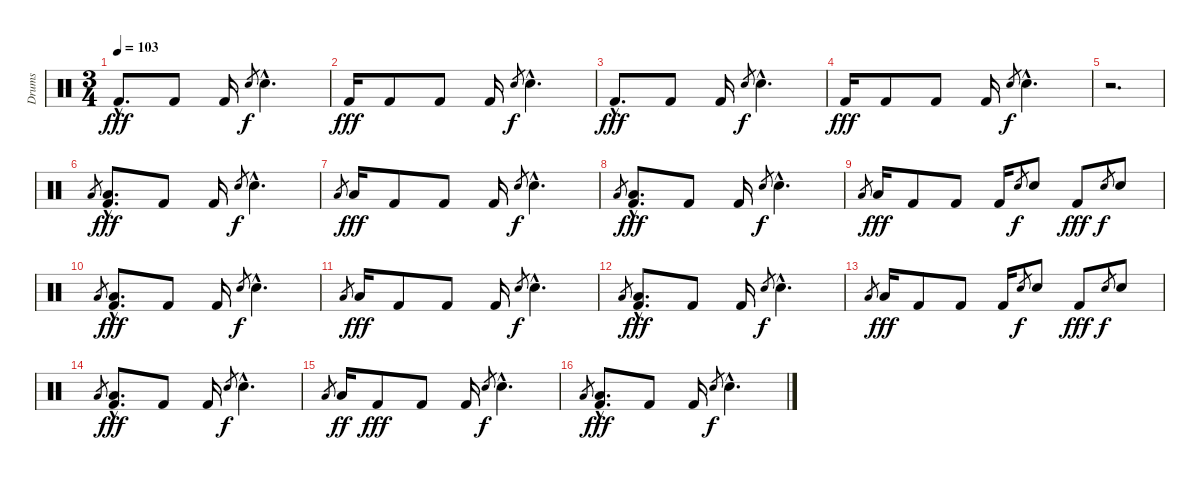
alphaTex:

\track ("Drums" "Drums") {instrument percussion}
\staff {score}
\articulation defaults
\ts (3 4)
\tempo 103
\clef neutral
\ks c "Kick (hit) 2"{hac}.8{d dy fff} "Kick (hit) 2".8 "Kick (hit) 2".16 "Snare (hit) 2".8{gr dy f} "Snare (hit) 2"{hac}.4{d}
|
"Kick (hit) 2".16{dy fff} "Kick (hit) 2".8 "Kick (hit) 2".8 "Kick (hit) 2".16 "Snare (hit) 2".8{gr dy f} "Snare (hit) 2"{hac}.4{d} |
"Kick (hit) 2"{hac}.8{d dy fff} "Kick (hit) 2".8 "Kick (hit) 2".16 "Snare (hit) 2".8{gr dy f} "Snare (hit) 2"{hac}.4{d} |
"Kick (hit) 2".16{dy fff} "Kick (hit) 2".8 "Kick (hit) 2".8 "Kick (hit) 2".16 "Snare (hit) 2".8{gr dy f} "Snare (hit) 2"{hac}.4{d} |
r.2{d} |
"Low Floor Tom (hit)".8{gr} ("Low Floor Tom (hit)"{hac} "Kick (hit) 2"{hac}).8{d dy fff} "Kick (hit) 2".8 "Kick (hit) 2".16 "Snare (hit) 2".8{gr dy f} "Snare (hit) 2"{hac}.4{d} |
"Low Floor Tom (hit)".8{gr} "Low Floor Tom (hit)".16{dy fff} "Kick (hit) 2".8 "Kick (hit) 2".8 "Kick (hit) 2".16 "Snare (hit) 2".8{gr dy f} "Snare (hit) 2"{hac}.4{d} |
"Low Floor Tom (hit)".8{gr} ("Low Floor Tom (hit)"{hac} "Kick (hit) 2"{hac}).8{d dy fff} "Kick (hit) 2".8 "Kick (hit) 2".16 "Snare (hit) 2".8{gr dy f} "Snare (hit) 2"{hac}.4{d} |
"Low Floor Tom (hit)".8{gr} "Low Floor Tom (hit)".16{dy fff} "Kick (hit) 2".8 "Kick (hit) 2".8 "Kick (hit) 2".16 "Snare (hit) 2".8{gr dy f} "Snare (hit) 2".8 "Kick (hit) 2".8{dy fff} "Snare (hit) 2".8{gr dy f} "Snare (hit) 2".8 |
"Low Floor Tom (hit)".8{gr} ("Low Floor Tom (hit)"{hac} "Kick (hit) 2"{hac}).8{d dy fff} "Kick (hit) 2".8 "Kick (hit) 2".16 "Snare (hit) 2".8{gr dy f} "Snare (hit) 2"{hac}.4{d} |
"Low Floor Tom (hit)".8{gr} "Low Floor Tom (hit)".16{dy fff} "Kick (hit) 2".8 "Kick (hit) 2".8 "Kick (hit) 2".16 "Snare (hit) 2".8{gr dy f} "Snare (hit) 2"{hac}.4{d} |
"Low Floor Tom (hit)".8{gr} ("Low Floor Tom (hit)"{hac} "Kick (hit) 2"{hac}).8{d dy fff} "Kick (hit) 2".8 "Kick (hit) 2".16 "Snare (hit) 2".8{gr dy f} "Snare (hit) 2"{hac}.4{d} |
"Low Floor Tom (hit)".8{gr} "Low Floor Tom (hit)".16{dy fff} "Kick (hit) 2".8 "Kick (hit) 2".8 "Kick (hit) 2".16 "Snare (hit) 2".8{gr dy f} "Snare (hit) 2".8 "Kick (hit) 2".8{dy fff} "Snare (hit) 2".8{gr dy f} "Snare (hit) 2".8 |
"Low Floor Tom (hit)".8{gr} ("Low Floor Tom (hit)"{hac} "Kick (hit) 2"{hac}).8{d dy fff} "Kick (hit) 2".8 "Kick (hit) 2".16 "Snare (hit) 2".8{gr dy f} "Snare (hit) 2"{hac}.4{d} |
"Low Floor Tom (hit)".8{gr} "Low Floor Tom (hit)".16{dy ff} "Kick (hit) 2".8{dy fff} "Kick (hit) 2".8 "Kick (hit) 2".16 "Snare (hit) 2".8{gr dy f} "Snare (hit) 2"{hac}.4{d} |
"Low Floor Tom (hit)".8{gr} ("Low Floor Tom (hit)"{hac} "Kick (hit) 2"{hac}).8{d dy fff} "Kick (hit) 2".8 "Kick (hit) 2".16 "Snare (hit) 2".8{gr dy f} "Snare (hit) 2"{hac}.4{d}
